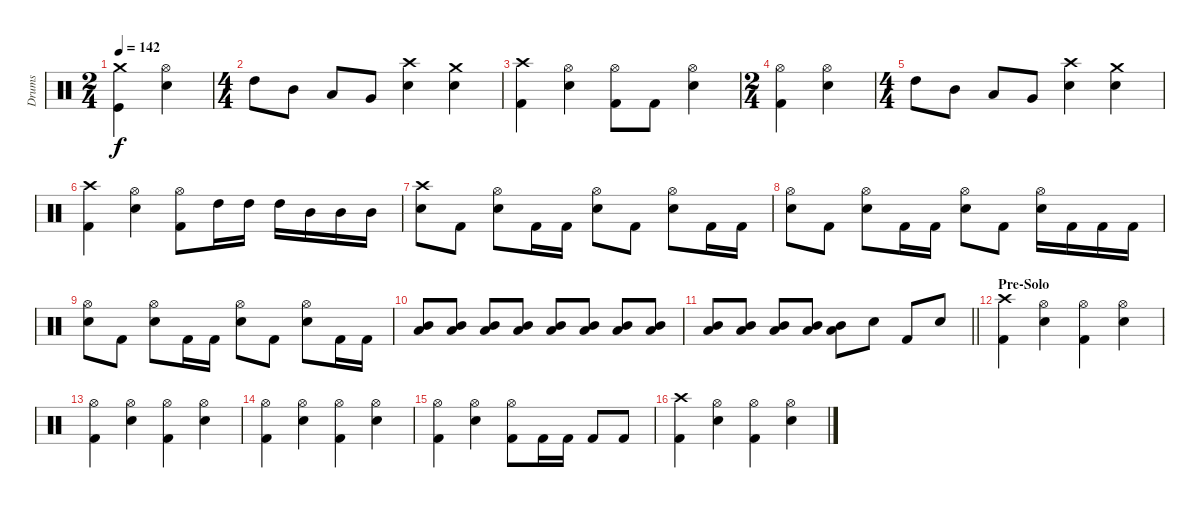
\track ("Drums" "Drums") {instrument percussion}
\staff {score}
\articulation defaults
\ts (2 4)
\tempo 142
\clef neutral
\ks c
("Kick (hit)" "Crash medium (hit)").4{dy f} ("Snare (hit) 2" "Hi-Hat (open)").4 |
\ts (4 4)
"High Tom (hit)".8 "Mid Tom (hit)".8 "Low Tom (hit)".8 "Very Low Tom (hit)".8 ("Snare (hit) 2" "Crash high (hit)").4 ("Snare (hit) 2" "Crash medium (hit)").4 |
("Kick (hit) 2" "Crash high (hit)").4 ("Snare (hit) 2" "Hi-Hat (open)").4 ("Kick (hit) 2" "Hi-Hat (open)").8 "Kick (hit) 2".8 ("Snare (hit) 2" "Hi-Hat (open)").4 |
\ts (2 4)
("Kick (hit) 2" "Hi-Hat (open)").4 ("Snare (hit) 2" "Hi-Hat (open)").4 |
\ts (4 4)
"High Tom (hit)".8 "Mid Tom (hit)".8 "Low Tom (hit)".8 "Very Low Tom (hit)".8 ("Snare (hit) 2" "Crash high (hit)").4 ("Snare (hit) 2" "Crash medium (hit)").4 |
("Kick (hit) 2" "Crash high (hit)").4 ("Snare (hit) 2" "Hi-Hat (open)").4 ("Kick (hit) 2" "Hi-Hat (open)").8 "High Tom (hit)".16 "High Tom (hit)".16 "High Tom (hit)".16 "Mid Tom (hit)".16 "Mid Tom (hit)".16 "Mid Tom (hit)".16 |
("Snare (hit) 2" "Crash high (hit)").8 "Kick (hit) 2".8 ("Snare (hit) 2" "Hi-Hat (open)").8 "Kick (hit) 2".16 "Kick (hit) 2".16 ("Snare (hit) 2" "Hi-Hat (open)").8 "Kick (hit) 2".8 ("Snare (hit) 2" "Hi-Hat (open)").8 "Kick (hit) 2".16 "Kick (hit) 2".16 |
("Snare (hit) 2" "Hi-Hat (open)").8 "Kick (hit) 2".8 ("Snare (hit) 2" "Hi-Hat (open)").8 "Kick (hit) 2".16 "Kick (hit) 2".16 ("Snare (hit) 2" "Hi-Hat (open)").8 "Kick (hit) 2".8 ("Snare (hit) 2" "Hi-Hat (open)").16 "Kick (hit) 2".16 "Kick (hit) 2".16 "Kick (hit) 2".16 |
("Snare (hit) 2" "Hi-Hat (open)").8 "Kick (hit) 2".8 ("Snare (hit) 2" "Hi-Hat (open)").8 "Kick (hit) 2".16 "Kick (hit) 2".16 ("Snare (hit) 2" "Hi-Hat (open)").8 "Kick (hit) 2".8 ("Snare (hit) 2" "Hi-Hat (open)").8 "Kick (hit) 2".16 "Kick (hit) 2".16 |
("Mid Tom (hit)" "Low Tom (hit)").8 ("Mid Tom (hit)" "Low Tom (hit)").8 ("Mid Tom (hit)" "Low Tom (hit)").8 ("Mid Tom (hit)" "Low Tom (hit)").8 ("Mid Tom (hit)" "Low Tom (hit)").8 ("Mid Tom (hit)" "Low Tom (hit)").8 ("Mid Tom (hit)" "Low Tom (hit)").8 ("Mid Tom (hit)" "Low Tom (hit)").8 |
\barLineRight lightlight
("Mid Tom (hit)" "Low Tom (hit)").8 ("Mid Tom (hit)" "Low Tom (hit)").8 ("Mid Tom (hit)" "Low Tom (hit)").8 ("Mid Tom (hit)" "Low Tom (hit)").8 ("Mid Tom (hit)" "Low Tom (hit)").8 "Snare (hit) 2".8 "Kick (hit) 2".8 "Snare (hit) 2".8 |
\section ("" "Pre-Solo")
("Kick (hit) 2" "Crash high (hit)").4 ("Snare (hit) 2" "Hi-Hat (open)").4 ("Kick (hit) 2" "Hi-Hat (open)").4 ("Snare (hit) 2" "Hi-Hat (open)").4 |
("Kick (hit) 2" "Hi-Hat (open)").4 ("Snare (hit) 2" "Hi-Hat (open)").4 ("Kick (hit) 2" "Hi-Hat (open)").4 ("Snare (hit) 2" "Hi-Hat (open)").4 |
("Kick (hit) 2" "Hi-Hat (open)").4 ("Snare (hit) 2" "Hi-Hat (open)").4 ("Kick (hit) 2" "Hi-Hat (open)").4 ("Snare (hit) 2" "Hi-Hat (open)").4 |
("Kick (hit) 2" "Hi-Hat (open)").4 ("Snare (hit) 2" "Hi-Hat (open)").4 ("Kick (hit) 2" "Hi-Hat (open)").8 "Kick (hit) 2".16 "Kick (hit) 2".16 "Kick (hit) 2".8 "Kick (hit) 2".8 |
("Kick (hit) 2" "Crash high (hit)").4 ("Snare (hit) 2" "Hi-Hat (open)").4 ("Kick (hit) 2" "Hi-Hat (open)").4 ("Snare (hit) 2" "Hi-Hat (open)").4
